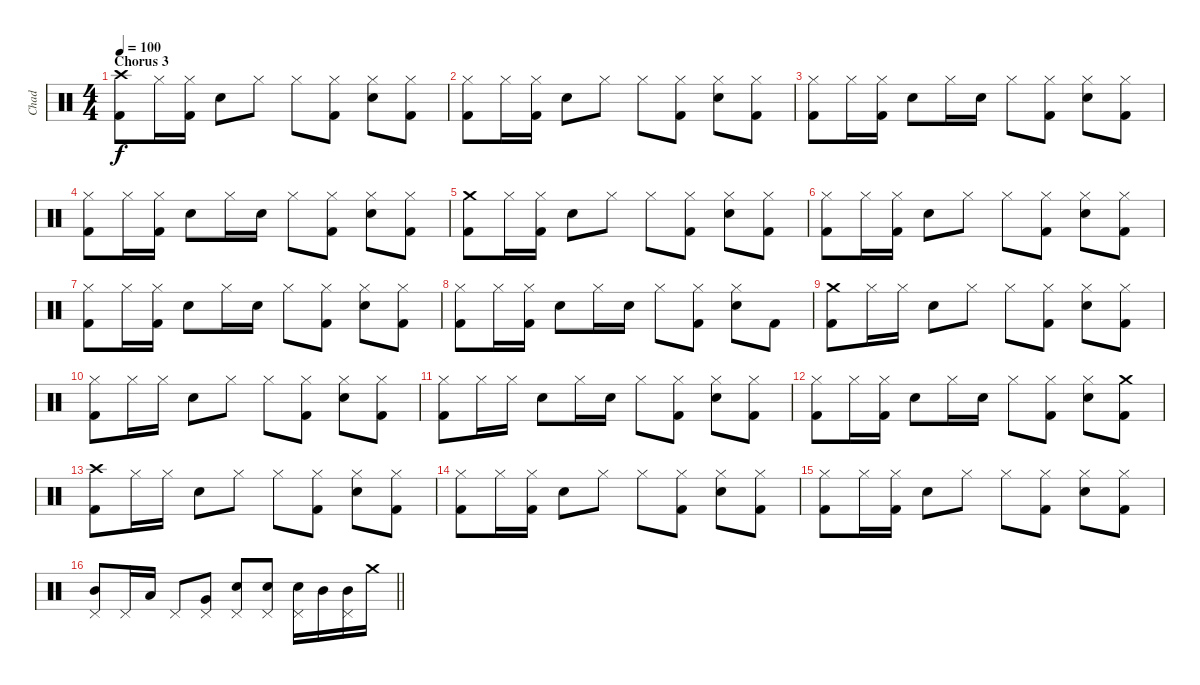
\track ("Chad" "Chad") {instrument percussion}
\staff {score}
\articulation defaults
\ts (4 4)
\section ("" "Chorus 3")
\tempo 100
\clef neutral
\ks c
("Crash high (hit)" "Kick (hit) 2").8{dy f} "Hi-Hat (closed)".16 ("Hi-Hat (closed)" "Kick (hit) 2").16 "Electric Snare (hit)".8 "Hi-Hat (closed)".8 "Hi-Hat (closed)".8 ("Hi-Hat (closed)" "Kick (hit) 2").8 ("Hi-Hat (closed)" "Electric Snare (hit)").8 ("Hi-Hat (closed)" "Kick (hit) 2").8 |
("Hi-Hat (closed)" "Kick (hit) 2").8 "Hi-Hat (closed)".16 ("Hi-Hat (closed)" "Kick (hit) 2").16 "Electric Snare (hit)".8 "Hi-Hat (closed)".8 "Hi-Hat (closed)".8 ("Hi-Hat (closed)" "Kick (hit) 2").8 ("Hi-Hat (closed)" "Electric Snare (hit)").8 ("Hi-Hat (closed)" "Kick (hit) 2").8 |
("Hi-Hat (closed)" "Kick (hit) 2").8 "Hi-Hat (closed)".16 ("Hi-Hat (closed)" "Kick (hit) 2").16 "Electric Snare (hit)".8 "Hi-Hat (closed)".16 "Electric Snare (hit)".16 "Hi-Hat (closed)".8 ("Hi-Hat (closed)" "Kick (hit) 2").8 ("Hi-Hat (closed)" "Electric Snare (hit)").8 ("Hi-Hat (closed)" "Kick (hit) 2").8 |
("Hi-Hat (closed)" "Kick (hit) 2").8 "Hi-Hat (closed)".16 ("Hi-Hat (closed)" "Kick (hit) 2").16 "Electric Snare (hit)".8 "Hi-Hat (closed)".16 "Electric Snare (hit)".16 "Hi-Hat (closed)".8 ("Hi-Hat (closed)" "Kick (hit) 2").8 ("Hi-Hat (closed)" "Electric Snare (hit)").8 ("Hi-Hat (closed)" "Kick (hit) 2").8 |
("Crash medium (hit)" "Kick (hit) 2").8 "Hi-Hat (closed)".16 ("Hi-Hat (closed)" "Kick (hit) 2").16 "Electric Snare (hit)".8 "Hi-Hat (closed)".8 "Hi-Hat (closed)".8 ("Hi-Hat (closed)" "Kick (hit) 2").8 ("Hi-Hat (closed)" "Electric Snare (hit)").8 ("Hi-Hat (closed)" "Kick (hit) 2").8 |
("Hi-Hat (closed)" "Kick (hit) 2").8 "Hi-Hat (closed)".16 ("Hi-Hat (closed)" "Kick (hit) 2").16 "Electric Snare (hit)".8 "Hi-Hat (closed)".8 "Hi-Hat (closed)".8 ("Hi-Hat (closed)" "Kick (hit) 2").8 ("Hi-Hat (closed)" "Electric Snare (hit)").8 ("Hi-Hat (closed)" "Kick (hit) 2").8 |
("Hi-Hat (closed)" "Kick (hit) 2").8 "Hi-Hat (closed)".16 ("Hi-Hat (closed)" "Kick (hit) 2").16 "Electric Snare (hit)".8 "Hi-Hat (closed)".16 "Electric Snare (hit)".16 "Hi-Hat (closed)".8 ("Hi-Hat (closed)" "Kick (hit) 2").8 ("Hi-Hat (closed)" "Electric Snare (hit)").8 ("Hi-Hat (closed)" "Kick (hit) 2").8 |
("Hi-Hat (closed)" "Kick (hit) 2").8 "Hi-Hat (closed)".16 ("Hi-Hat (closed)" "Kick (hit) 2").16 "Electric Snare (hit)".8 "Hi-Hat (closed)".16 "Electric Snare (hit)".16 "Hi-Hat (closed)".8 ("Hi-Hat (closed)" "Kick (hit) 2").8 ("Hi-Hat (closed)" "Electric Snare (hit)").8 "Kick (hit) 2".8 |
("Crash medium (hit)" "Kick (hit) 2").8 "Hi-Hat (closed)".16 "Hi-Hat (closed)".16 "Electric Snare (hit)".8 "Hi-Hat (closed)".8 "Hi-Hat (closed)".8 ("Hi-Hat (closed)" "Kick (hit) 2").8 ("Hi-Hat (closed)" "Electric Snare (hit)").8 ("Hi-Hat (closed)" "Kick (hit) 2").8 |
("Hi-Hat (closed)" "Kick (hit) 2").8 "Hi-Hat (closed)".16 "Hi-Hat (closed)".16 "Electric Snare (hit)".8 "Hi-Hat (closed)".8 "Hi-Hat (closed)".8 ("Hi-Hat (closed)" "Kick (hit) 2").8 ("Hi-Hat (closed)" "Electric Snare (hit)").8 ("Hi-Hat (closed)" "Kick (hit) 2").8 |
("Hi-Hat (closed)" "Kick (hit) 2").8 "Hi-Hat (closed)".16 "Hi-Hat (closed)".16 "Electric Snare (hit)".8 "Hi-Hat (closed)".16 "Electric Snare (hit)".16 "Hi-Hat (closed)".8 ("Hi-Hat (closed)" "Kick (hit) 2").8 ("Hi-Hat (closed)" "Electric Snare (hit)").8 ("Hi-Hat (closed)" "Kick (hit) 2").8 |
("Hi-Hat (closed)" "Kick (hit) 2").8 "Hi-Hat (closed)".16 ("Hi-Hat (closed)" "Kick (hit) 2").16 "Electric Snare (hit)".8 "Hi-Hat (closed)".16 "Electric Snare (hit)".16 "Hi-Hat (closed)".8 ("Hi-Hat (closed)" "Kick (hit) 2").8 ("Hi-Hat (closed)" "Electric Snare (hit)").8 ("Crash medium (hit)" "Kick (hit) 2").8 |
("Crash high (hit)" "Kick (hit) 2").8 "Hi-Hat (closed)".16 "Hi-Hat (closed)".16 "Electric Snare (hit)".8 "Hi-Hat (closed)".8 "Hi-Hat (closed)".8 ("Hi-Hat (closed)" "Kick (hit) 2").8 ("Hi-Hat (closed)" "Electric Snare (hit)").8 ("Hi-Hat (closed)" "Kick (hit) 2").8 |
("Hi-Hat (closed)" "Kick (hit) 2").8 "Hi-Hat (closed)".16 ("Hi-Hat (closed)" "Kick (hit) 2").16 "Electric Snare (hit)".8 "Hi-Hat (closed)".8 "Hi-Hat (closed)".8 ("Hi-Hat (closed)" "Kick (hit) 2").8 ("Hi-Hat (closed)" "Electric Snare (hit)").8 ("Hi-Hat (closed)" "Kick (hit) 2").8 |
("Hi-Hat (closed)" "Kick (hit) 2").8 "Hi-Hat (closed)".16 ("Hi-Hat (closed)" "Kick (hit) 2").16 "Electric Snare (hit)".8 "Hi-Hat (closed)".8 "Hi-Hat (closed)".8 ("Hi-Hat (closed)" "Kick (hit) 2").8 ("Hi-Hat (closed)" "Electric Snare (hit)").8 ("Hi-Hat (closed)" "Kick (hit) 2").8 |
\barLineRight lightlight
("Mid Tom (hit)" "Pedal Hi-Hat (hit)").8 "Pedal Hi-Hat (hit)".16 "Low Tom (hit)".16 "Pedal Hi-Hat (hit)".8 ("Very Low Tom (hit)" "Pedal Hi-Hat (hit)").8 ("Electric Snare (hit)" "Pedal Hi-Hat (hit)").8 ("Electric Snare (hit)" "Pedal Hi-Hat (hit)").8 ("Electric Snare (hit)" "Pedal Hi-Hat (hit)").16 "Mid Tom (hit)".16 ("Mid Tom (hit)" "Pedal Hi-Hat (hit)").16 "Crash medium (hit)".16
